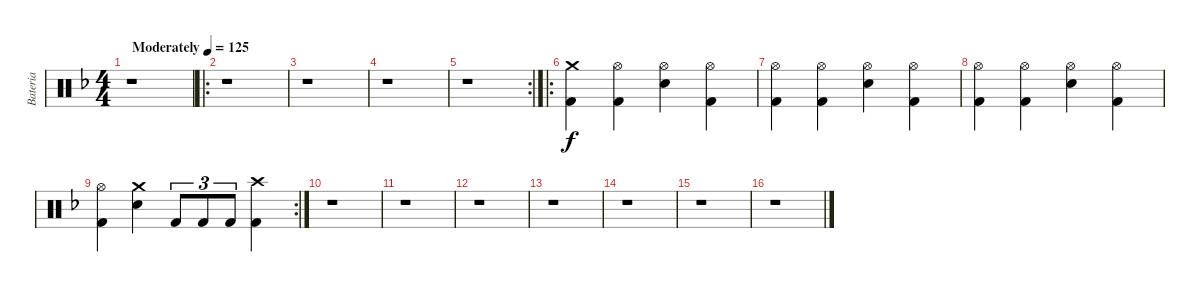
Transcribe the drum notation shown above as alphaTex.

\track ("Bateria" "Bateria") {instrument percussion}
\staff {score}
\articulation defaults
\ts (4 4)
\tempo (125 "Moderately")
\clef neutral
\ks f
r.1{dy f} |
\ro
r.1 |
r.1 |
r.1 |
\rc 2
r.1 |
\ro
("Crash medium (hit)" "Kick (hit) 2").4 ("Hi-Hat (open)" "Kick (hit) 2").4 ("Hi-Hat (open)" "Electric Snare (hit)").4 ("Hi-Hat (open)" "Kick (hit) 2").4 |
("Hi-Hat (open)" "Kick (hit) 2").4 ("Hi-Hat (open)" "Kick (hit) 2").4 ("Hi-Hat (open)" "Electric Snare (hit)").4 ("Hi-Hat (open)" "Kick (hit) 2").4 |
("Hi-Hat (open)" "Kick (hit) 2").4 ("Hi-Hat (open)" "Kick (hit) 2").4 ("Hi-Hat (open)" "Electric Snare (hit)").4 ("Hi-Hat (open)" "Kick (hit) 2").4 |
\rc 2
("Hi-Hat (open)" "Kick (hit) 2").4 ("Crash medium (hit)" "Electric Snare (hit)").4 "Kick (hit) 2".8{tu (3 2)} "Kick (hit) 2".8{tu (3 2)} "Kick (hit) 2".8{tu (3 2)} ("Crash high (hit)" "Kick (hit) 2").4 |
r.1 |
r.1 |
r.1 |
r.1 |
r.1 |
r.1 |
r.1
